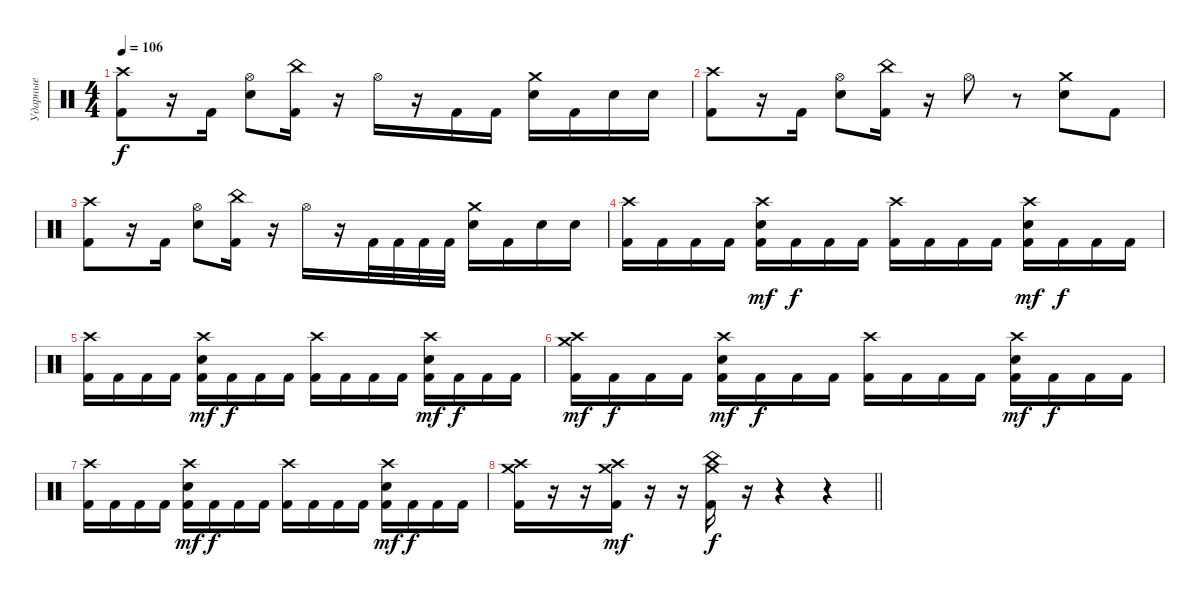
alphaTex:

\track ("Ударные" "Ударные") {instrument percussion}
\staff {score}
\articulation defaults
\ts (4 4)
\tempo 106
\clef neutral
\ks c
("Crash high (hit)" "Kick (hit) 2").8{dy f} r.16 "Kick (hit) 2".16 ("Hi-Hat (open)" "Electric Snare (hit)").8 ("China (hit)" "Kick (hit) 2").16 r.16 "Hi-Hat (open)".16 r.16 "Kick (hit) 2".16 "Kick (hit) 2".16 ("Crash medium (hit)" "Electric Snare (hit)").16 "Kick (hit) 2".16 "Electric Snare (hit)".16 "Electric Snare (hit)".16 |
("Crash high (hit)" "Kick (hit) 2").8 r.16 "Kick (hit) 2".16 ("Hi-Hat (open)" "Electric Snare (hit)").8 ("China (hit)" "Kick (hit) 2").16 r.16 "Hi-Hat (open)".8 r.8 ("Crash medium (hit)" "Electric Snare (hit)").8 "Kick (hit) 2".8 |
("Crash high (hit)" "Kick (hit) 2").8 r.16 "Kick (hit) 2".16 ("Hi-Hat (open)" "Electric Snare (hit)").8 ("China (hit)" "Kick (hit) 2").16 r.16 "Hi-Hat (open)".16 r.16 "Kick (hit) 2".32 "Kick (hit) 2".32 "Kick (hit) 2".32 "Kick (hit) 2".32 ("Crash medium (hit)" "Electric Snare (hit)").16 "Kick (hit) 2".16 "Electric Snare (hit)".16 "Electric Snare (hit)".16 |
("Crash high (hit)" "Kick (hit) 2").16 "Kick (hit) 2".16 "Kick (hit) 2".16 "Kick (hit) 2".16 ("Crash high (hit)" "Electric Snare (hit)" "Kick (hit) 2").16{dy mf} "Kick (hit) 2".16{dy f} "Kick (hit) 2".16 "Kick (hit) 2".16 ("Crash high (hit)" "Kick (hit) 2").16 "Kick (hit) 2".16 "Kick (hit) 2".16 "Kick (hit) 2".16 ("Crash high (hit)" "Electric Snare (hit)" "Kick (hit) 2").16{dy mf} "Kick (hit) 2".16{dy f} "Kick (hit) 2".16 "Kick (hit) 2".16 |
("Crash high (hit)" "Kick (hit) 2").16 "Kick (hit) 2".16 "Kick (hit) 2".16 "Kick (hit) 2".16 ("Crash high (hit)" "Electric Snare (hit)" "Kick (hit) 2").16{dy mf} "Kick (hit) 2".16{dy f} "Kick (hit) 2".16 "Kick (hit) 2".16 ("Crash high (hit)" "Kick (hit) 2").16 "Kick (hit) 2".16 "Kick (hit) 2".16 "Kick (hit) 2".16 ("Crash high (hit)" "Electric Snare (hit)" "Kick (hit) 2").16{dy mf} "Kick (hit) 2".16{dy f} "Kick (hit) 2".16 "Kick (hit) 2".16 |
("Crash high (hit)" "Crash medium (hit)" "Kick (hit) 2").16{dy mf} "Kick (hit) 2".16{dy f} "Kick (hit) 2".16 "Kick (hit) 2".16 ("Crash high (hit)" "Electric Snare (hit)" "Kick (hit) 2").16{dy mf} "Kick (hit) 2".16{dy f} "Kick (hit) 2".16 "Kick (hit) 2".16 ("Crash high (hit)" "Kick (hit) 2").16 "Kick (hit) 2".16 "Kick (hit) 2".16 "Kick (hit) 2".16 ("Crash high (hit)" "Electric Snare (hit)" "Kick (hit) 2").16{dy mf} "Kick (hit) 2".16{dy f} "Kick (hit) 2".16 "Kick (hit) 2".16 |
("Crash high (hit)" "Kick (hit) 2").16 "Kick (hit) 2".16 "Kick (hit) 2".16 "Kick (hit) 2".16 ("Crash high (hit)" "Electric Snare (hit)" "Kick (hit) 2").16{dy mf} "Kick (hit) 2".16{dy f} "Kick (hit) 2".16 "Kick (hit) 2".16 ("Crash high (hit)" "Kick (hit) 2").16 "Kick (hit) 2".16 "Kick (hit) 2".16 "Kick (hit) 2".16 ("Crash high (hit)" "Electric Snare (hit)" "Kick (hit) 2").16{dy mf} "Kick (hit) 2".16{dy f} "Kick (hit) 2".16 "Kick (hit) 2".16 |
\barLineRight lightlight
("Crash high (hit)" "Crash medium (hit)" "Kick (hit) 2").16 r.16 r.16 ("Crash high (hit)" "Crash medium (hit)" "Kick (hit) 2").16{dy mf} r.16 r.16 ("Crash medium (hit)" "China (hit)" "Kick (hit) 2").16{dy f} r.16 r.4 r.4
